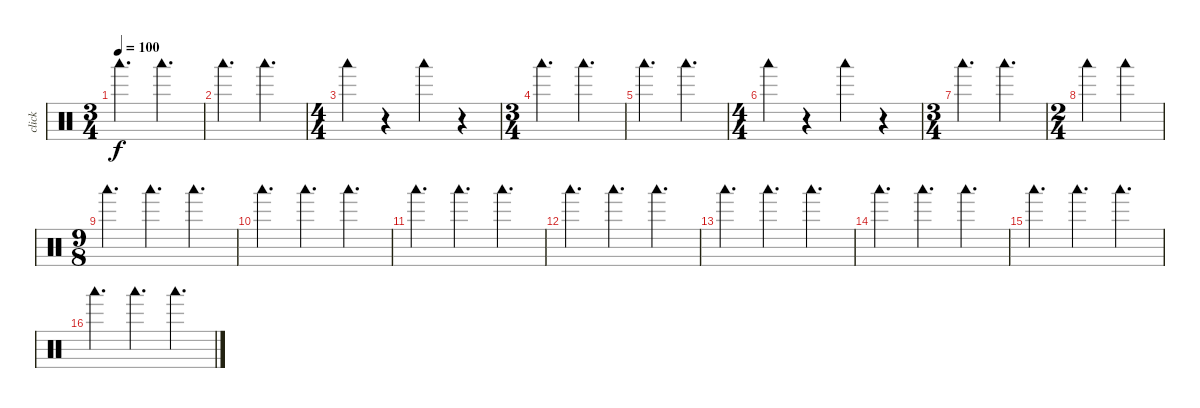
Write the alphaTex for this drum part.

\track ("click" "click") {mute instrument percussion}
\staff {score}
\articulation defaults
\ts (3 4)
\tempo 100
\clef neutral
\ks c "Woodblock low (hit)".4{d dy f} "Woodblock low (hit)".4{d}
|
"Woodblock low (hit)".4{d} "Woodblock low (hit)".4{d} |
\ts (4 4)
"Woodblock low (hit)".4 r.4 "Woodblock low (hit)".4 r.4 |
\ts (3 4)
"Woodblock low (hit)".4{d} "Woodblock low (hit)".4{d} |
"Woodblock low (hit)".4{d} "Woodblock low (hit)".4{d} |
\ts (4 4)
"Woodblock low (hit)".4 r.4 "Woodblock low (hit)".4 r.4 |
\ts (3 4)
"Woodblock low (hit)".4{d} "Woodblock low (hit)".4{d} |
\ts (2 4)
"Woodblock low (hit)".4 "Woodblock low (hit)".4 |
\ts (9 8)
"Woodblock low (hit)".4{d} "Woodblock low (hit)".4{d} "Woodblock low (hit)".4{d} |
"Woodblock low (hit)".4{d} "Woodblock low (hit)".4{d} "Woodblock low (hit)".4{d} |
"Woodblock low (hit)".4{d} "Woodblock low (hit)".4{d} "Woodblock low (hit)".4{d} |
"Woodblock low (hit)".4{d} "Woodblock low (hit)".4{d} "Woodblock low (hit)".4{d} |
"Woodblock low (hit)".4{d} "Woodblock low (hit)".4{d} "Woodblock low (hit)".4{d} |
"Woodblock low (hit)".4{d} "Woodblock low (hit)".4{d} "Woodblock low (hit)".4{d} |
"Woodblock low (hit)".4{d} "Woodblock low (hit)".4{d} "Woodblock low (hit)".4{d} |
"Woodblock low (hit)".4{d} "Woodblock low (hit)".4{d} "Woodblock low (hit)".4{d}
